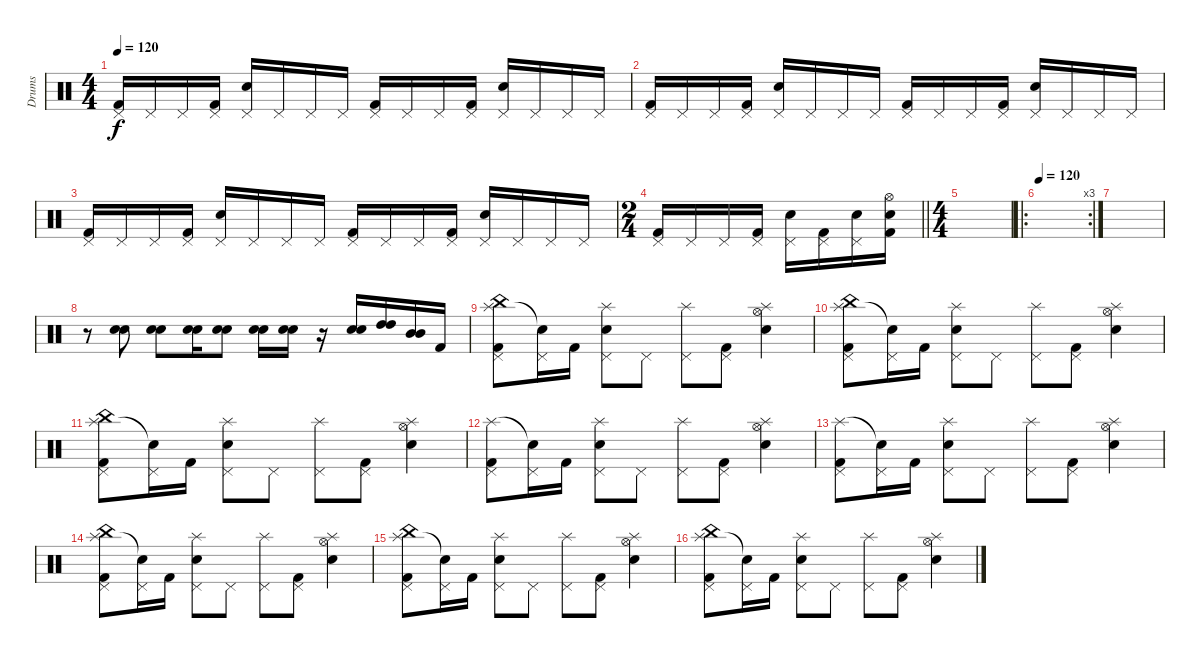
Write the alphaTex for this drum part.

\track ("Drums" "Drums") {instrument percussion}
\staff {score}
\articulation defaults
\ts (4 4)
\tempo 120
\clef neutral
\ks c
("Pedal Hi-Hat (hit)" "Kick (hit) 2").16{dy f} "Pedal Hi-Hat (hit)".16 "Pedal Hi-Hat (hit)".16 ("Pedal Hi-Hat (hit)" "Kick (hit) 2").16 ("Pedal Hi-Hat (hit)" "Electric Snare (hit)").16 "Pedal Hi-Hat (hit)".16 "Pedal Hi-Hat (hit)".16 "Pedal Hi-Hat (hit)".16 ("Pedal Hi-Hat (hit)" "Kick (hit) 2").16 "Pedal Hi-Hat (hit)".16 "Pedal Hi-Hat (hit)".16 ("Pedal Hi-Hat (hit)" "Kick (hit) 2").16 ("Pedal Hi-Hat (hit)" "Electric Snare (hit)").16 "Pedal Hi-Hat (hit)".16 "Pedal Hi-Hat (hit)".16 "Pedal Hi-Hat (hit)".16 |
("Pedal Hi-Hat (hit)" "Kick (hit) 2").16 "Pedal Hi-Hat (hit)".16 "Pedal Hi-Hat (hit)".16 ("Pedal Hi-Hat (hit)" "Kick (hit) 2").16 ("Pedal Hi-Hat (hit)" "Electric Snare (hit)").16 "Pedal Hi-Hat (hit)".16 "Pedal Hi-Hat (hit)".16 "Pedal Hi-Hat (hit)".16 ("Pedal Hi-Hat (hit)" "Kick (hit) 2").16 "Pedal Hi-Hat (hit)".16 "Pedal Hi-Hat (hit)".16 ("Pedal Hi-Hat (hit)" "Kick (hit) 2").16 ("Pedal Hi-Hat (hit)" "Electric Snare (hit)").16 "Pedal Hi-Hat (hit)".16 "Pedal Hi-Hat (hit)".16 "Pedal Hi-Hat (hit)".16 |
("Pedal Hi-Hat (hit)" "Kick (hit) 2").16 "Pedal Hi-Hat (hit)".16 "Pedal Hi-Hat (hit)".16 ("Pedal Hi-Hat (hit)" "Kick (hit) 2").16 ("Pedal Hi-Hat (hit)" "Electric Snare (hit)").16 "Pedal Hi-Hat (hit)".16 "Pedal Hi-Hat (hit)".16 "Pedal Hi-Hat (hit)".16 ("Pedal Hi-Hat (hit)" "Kick (hit) 2").16 "Pedal Hi-Hat (hit)".16 "Pedal Hi-Hat (hit)".16 ("Pedal Hi-Hat (hit)" "Kick (hit) 2").16 ("Pedal Hi-Hat (hit)" "Electric Snare (hit)").16 "Pedal Hi-Hat (hit)".16 "Pedal Hi-Hat (hit)".16 "Pedal Hi-Hat (hit)".16 |
\ts (2 4)
\barLineRight lightlight
("Pedal Hi-Hat (hit)" "Kick (hit) 2").16 "Pedal Hi-Hat (hit)".16 "Pedal Hi-Hat (hit)".16 ("Pedal Hi-Hat (hit)" "Kick (hit) 2").16 ("Pedal Hi-Hat (hit)" "Electric Snare (hit)").16 ("Pedal Hi-Hat (hit)" "Kick (hit) 2").16 ("Pedal Hi-Hat (hit)" "Electric Snare (hit)").16 ("Hi-Hat (open)" "Electric Snare (hit)" "Kick (hit) 2").16 |
\ts (4 4)
|
\ro
\rc 3
\tempo 120
|
|
r.8{volume 13} ("Electric Snare (hit)" "Snare (hit) 2").8 ("Electric Snare (hit)" "Snare (hit) 2").8 ("Electric Snare (hit)" "Snare (hit) 2").16 ("Electric Snare (hit)" "Snare (hit) 2").8 ("Electric Snare (hit)" "Snare (hit) 2").16 ("Electric Snare (hit)" "Snare (hit) 2").16 r.16 ("Electric Snare (hit)" "Snare (hit) 2").16 ("High Tom (hit)" "High Tom (hit)").16 ("Mid Tom (hit)" "Mid Tom (hit)").16 "Kick (hit) 2".16 |
("Pedal Hi-Hat (hit)" "Splash (hit)" "China (hit)" "Kick (hit) 2").8 ("Pedal Hi-Hat (hit)" "Snare (hit)"{t}).16 "Kick (hit) 2".16 ("Pedal Hi-Hat (hit)" "Splash (hit)" "Electric Snare (hit)").8 "Pedal Hi-Hat (hit)".8 ("Pedal Hi-Hat (hit)" "Splash (hit)").8 ("Pedal Hi-Hat (hit)" "Kick (hit) 2").8 ("Hi-Hat (open)" "Splash (hit)" "Electric Snare (hit)").4 |
("Pedal Hi-Hat (hit)" "Splash (hit)" "China (hit)" "Kick (hit) 2").8 ("Pedal Hi-Hat (hit)" "Snare (hit)"{t}).16 "Kick (hit) 2".16 ("Pedal Hi-Hat (hit)" "Splash (hit)" "Electric Snare (hit)").8 "Pedal Hi-Hat (hit)".8 ("Pedal Hi-Hat (hit)" "Splash (hit)").8 ("Pedal Hi-Hat (hit)" "Kick (hit) 2").8 ("Hi-Hat (open)" "Splash (hit)" "Electric Snare (hit)").4 |
("Pedal Hi-Hat (hit)" "Splash (hit)" "China (hit)" "Kick (hit) 2").8 ("Pedal Hi-Hat (hit)" "Snare (hit)"{t}).16 "Kick (hit) 2".16 ("Pedal Hi-Hat (hit)" "Splash (hit)" "Electric Snare (hit)").8 "Pedal Hi-Hat (hit)".8 ("Pedal Hi-Hat (hit)" "Splash (hit)").8 ("Pedal Hi-Hat (hit)" "Kick (hit) 2").8 ("Hi-Hat (open)" "Splash (hit)" "Electric Snare (hit)").4 |
("Pedal Hi-Hat (hit)" "Splash (hit)" "Kick (hit) 2").8 ("Pedal Hi-Hat (hit)" "Snare (hit)"{t}).16 "Kick (hit) 2".16 ("Pedal Hi-Hat (hit)" "Splash (hit)" "Electric Snare (hit)").8 "Pedal Hi-Hat (hit)".8 ("Pedal Hi-Hat (hit)" "Splash (hit)").8 ("Pedal Hi-Hat (hit)" "Kick (hit) 2").8 ("Hi-Hat (open)" "Splash (hit)" "Electric Snare (hit)").4 |
("Pedal Hi-Hat (hit)" "Splash (hit)" "Kick (hit) 2").8 ("Pedal Hi-Hat (hit)" "Snare (hit)"{t}).16 "Kick (hit) 2".16 ("Pedal Hi-Hat (hit)" "Splash (hit)" "Electric Snare (hit)").8 "Pedal Hi-Hat (hit)".8 ("Pedal Hi-Hat (hit)" "Splash (hit)").8 ("Pedal Hi-Hat (hit)" "Kick (hit) 2").8 ("Hi-Hat (open)" "Splash (hit)" "Electric Snare (hit)").4 |
("Pedal Hi-Hat (hit)" "Splash (hit)" "China (hit)" "Kick (hit) 2").8 ("Pedal Hi-Hat (hit)" "Snare (hit)"{t}).16 "Kick (hit) 2".16 ("Pedal Hi-Hat (hit)" "Splash (hit)" "Electric Snare (hit)").8 "Pedal Hi-Hat (hit)".8 ("Pedal Hi-Hat (hit)" "Splash (hit)").8 ("Pedal Hi-Hat (hit)" "Kick (hit) 2").8 ("Hi-Hat (open)" "Splash (hit)" "Electric Snare (hit)").4 |
("Pedal Hi-Hat (hit)" "Splash (hit)" "China (hit)" "Kick (hit) 2").8 ("Pedal Hi-Hat (hit)" "Snare (hit)"{t}).16 "Kick (hit) 2".16 ("Pedal Hi-Hat (hit)" "Splash (hit)" "Electric Snare (hit)").8 "Pedal Hi-Hat (hit)".8 ("Pedal Hi-Hat (hit)" "Splash (hit)").8 ("Pedal Hi-Hat (hit)" "Kick (hit) 2").8 ("Hi-Hat (open)" "Splash (hit)" "Electric Snare (hit)").4 |
("Pedal Hi-Hat (hit)" "Splash (hit)" "China (hit)" "Kick (hit) 2").8 ("Pedal Hi-Hat (hit)" "Snare (hit)"{t}).16 "Kick (hit) 2".16 ("Pedal Hi-Hat (hit)" "Splash (hit)" "Electric Snare (hit)").8 "Pedal Hi-Hat (hit)".8 ("Pedal Hi-Hat (hit)" "Splash (hit)").8 ("Pedal Hi-Hat (hit)" "Kick (hit) 2").8 ("Hi-Hat (open)" "Splash (hit)" "Electric Snare (hit)").4
